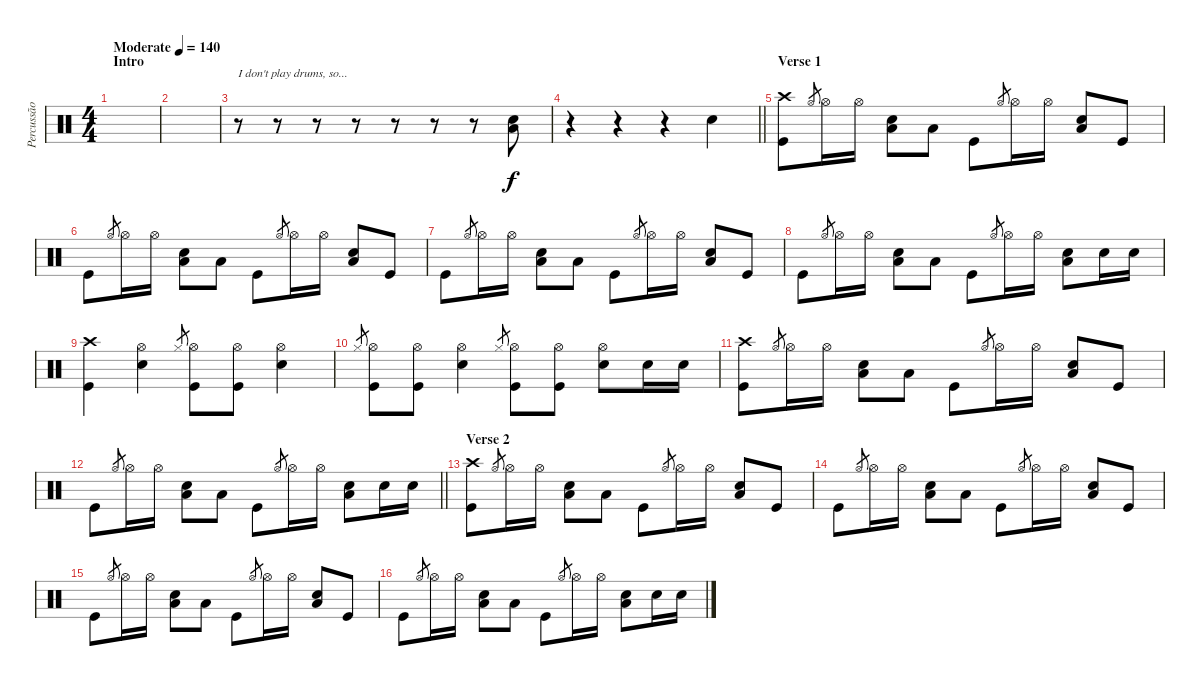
\track ("Percussão" "Percussão") {instrument percussion}
\staff {score}
\articulation defaults
\ts (4 4)
\section ("" "Intro")
\tempo (140 "Moderate")
\clef neutral
\ks c
|
|
r.8{txt "I don't play drums, so..."} r.8 r.8 r.8 r.8 r.8 r.8 ("Snare (hit) 2" "Low Tom (hit)").8 |
\barLineRight lightlight
r.4 r.4 r.4 "Snare (hit) 2".4 |
\section ("" "Verse 1")
("Crash high (hit)" "Kick (hit)").8 "Hi-Hat (open)".8{gr} "Hi-Hat (open)".16 "Hi-Hat (open)".16 ("Snare (hit) 2" "Low Tom (hit)").8 "Low Tom (hit)".8 "Kick (hit)".8 "Hi-Hat (open)".8{gr} "Hi-Hat (open)".16 "Hi-Hat (open)".16 ("Snare (hit) 2" "Low Tom (hit)").8 "Kick (hit)".8 |
"Kick (hit)".8 "Hi-Hat (open)".8{gr} "Hi-Hat (open)".16 "Hi-Hat (open)".16 ("Snare (hit) 2" "Low Tom (hit)").8 "Low Tom (hit)".8 "Kick (hit)".8 "Hi-Hat (open)".8{gr} "Hi-Hat (open)".16 "Hi-Hat (open)".16 ("Snare (hit) 2" "Low Tom (hit)").8 "Kick (hit)".8 |
"Kick (hit)".8 "Hi-Hat (open)".8{gr} "Hi-Hat (open)".16 "Hi-Hat (open)".16 ("Snare (hit) 2" "Low Tom (hit)").8 "Low Tom (hit)".8 "Kick (hit)".8 "Hi-Hat (open)".8{gr} "Hi-Hat (open)".16 "Hi-Hat (open)".16 ("Snare (hit) 2" "Low Tom (hit)").8 "Kick (hit)".8 |
"Kick (hit)".8 "Hi-Hat (open)".8{gr} "Hi-Hat (open)".16 "Hi-Hat (open)".16 ("Snare (hit) 2" "Low Tom (hit)").8 "Low Tom (hit)".8 "Kick (hit)".8 "Hi-Hat (open)".8{gr} "Hi-Hat (open)".16 "Hi-Hat (open)".16 ("Snare (hit) 2" "Low Tom (hit)").8 "Snare (hit) 2".16 "Snare (hit) 2".16 |
("Crash high (hit)" "Kick (hit)").4 ("Hi-Hat (open)" "Snare (hit) 2").4 "Hi-Hat (closed)".8{gr} ("Hi-Hat (open)" "Kick (hit)").8 ("Hi-Hat (open)" "Kick (hit)").8 ("Hi-Hat (open)" "Snare (hit) 2").4 |
"Hi-Hat (closed)".8{gr} ("Hi-Hat (open)" "Kick (hit)").8 ("Hi-Hat (open)" "Kick (hit)").8 ("Hi-Hat (open)" "Snare (hit) 2").4 "Hi-Hat (closed)".8{gr} ("Hi-Hat (open)" "Kick (hit)").8 ("Hi-Hat (open)" "Kick (hit)").8 ("Hi-Hat (open)" "Snare (hit) 2").8 "Snare (hit) 2".16 "Snare (hit) 2".16 |
("Crash high (hit)" "Kick (hit)").8 "Hi-Hat (open)".8{gr} "Hi-Hat (open)".16 "Hi-Hat (open)".16 ("Snare (hit) 2" "Low Tom (hit)").8 "Low Tom (hit)".8 "Kick (hit)".8 "Hi-Hat (open)".8{gr} "Hi-Hat (open)".16 "Hi-Hat (open)".16 ("Snare (hit) 2" "Low Tom (hit)").8 "Kick (hit)".8 |
\barLineRight lightlight "Kick (hit)".8 "Hi-Hat (open)".8{gr} "Hi-Hat (open)".16 "Hi-Hat (open)".16
("Snare (hit) 2" "Low Tom (hit)").8 "Low Tom (hit)".8 "Kick (hit)".8 "Hi-Hat (open)".8{gr} "Hi-Hat (open)".16 "Hi-Hat (open)".16 ("Snare (hit) 2" "Low Tom (hit)").8 "Snare (hit) 2".16 "Snare (hit) 2".16 |
\section ("" "Verse 2")
("Crash high (hit)" "Kick (hit)").8 "Hi-Hat (open)".8{gr} "Hi-Hat (open)".16 "Hi-Hat (open)".16 ("Snare (hit) 2" "Low Tom (hit)").8 "Low Tom (hit)".8 "Kick (hit)".8 "Hi-Hat (open)".8{gr} "Hi-Hat (open)".16 "Hi-Hat (open)".16 ("Snare (hit) 2" "Low Tom (hit)").8 "Kick (hit)".8 |
"Kick (hit)".8 "Hi-Hat (open)".8{gr} "Hi-Hat (open)".16 "Hi-Hat (open)".16 ("Snare (hit) 2" "Low Tom (hit)").8 "Low Tom (hit)".8 "Kick (hit)".8 "Hi-Hat (open)".8{gr} "Hi-Hat (open)".16 "Hi-Hat (open)".16 ("Snare (hit) 2" "Low Tom (hit)").8 "Kick (hit)".8 |
"Kick (hit)".8 "Hi-Hat (open)".8{gr} "Hi-Hat (open)".16 "Hi-Hat (open)".16 ("Snare (hit) 2" "Low Tom (hit)").8 "Low Tom (hit)".8 "Kick (hit)".8 "Hi-Hat (open)".8{gr} "Hi-Hat (open)".16 "Hi-Hat (open)".16 ("Snare (hit) 2" "Low Tom (hit)").8 "Kick (hit)".8 |
"Kick (hit)".8 "Hi-Hat (open)".8{gr} "Hi-Hat (open)".16 "Hi-Hat (open)".16 ("Snare (hit) 2" "Low Tom (hit)").8 "Low Tom (hit)".8 "Kick (hit)".8 "Hi-Hat (open)".8{gr} "Hi-Hat (open)".16 "Hi-Hat (open)".16 ("Snare (hit) 2" "Low Tom (hit)").8 "Snare (hit) 2".16 "Snare (hit) 2".16
